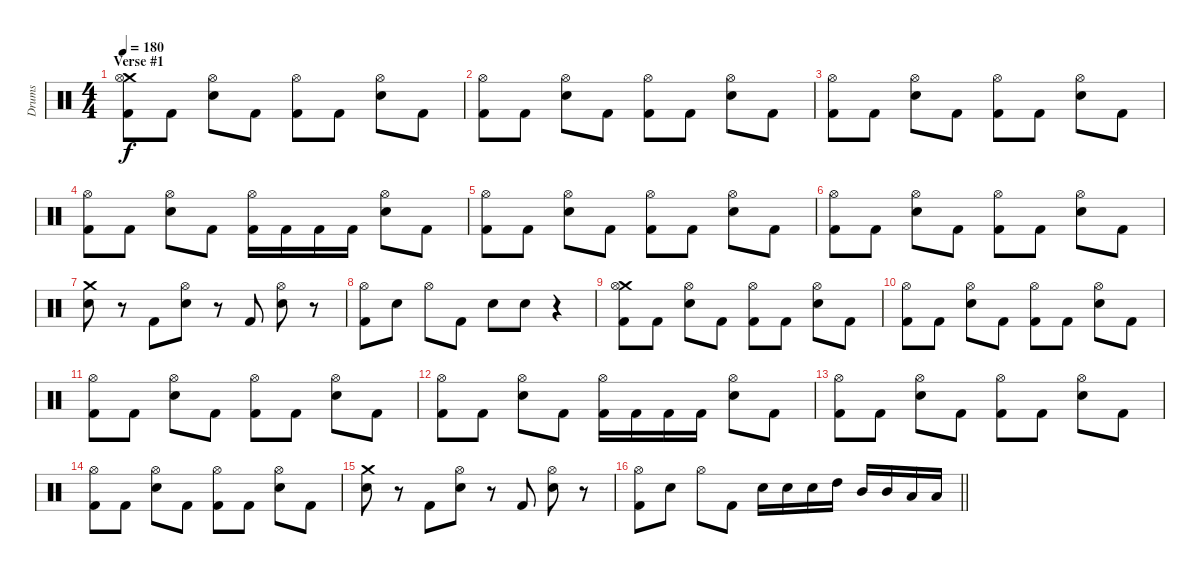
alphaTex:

\track ("Drums" "Drums") {instrument percussion}
\staff {score}
\articulation defaults
\ts (4 4)
\section ("" "Verse #1")
\tempo 180
\clef neutral
\ks c
("Crash medium (hit)" "Hi-Hat (open)" "Kick (hit) 2").8{dy f} "Kick (hit) 2".8 ("Hi-Hat (open)" "Snare (hit) 2").8 "Kick (hit) 2".8 ("Hi-Hat (open)" "Kick (hit) 2").8 "Kick (hit) 2".8 ("Hi-Hat (open)" "Snare (hit) 2").8 "Kick (hit) 2".8 |
("Hi-Hat (open)" "Kick (hit) 2").8 "Kick (hit) 2".8 ("Hi-Hat (open)" "Snare (hit) 2").8 "Kick (hit) 2".8 ("Hi-Hat (open)" "Kick (hit) 2").8 "Kick (hit) 2".8 ("Hi-Hat (open)" "Snare (hit) 2").8 "Kick (hit) 2".8 |
("Hi-Hat (open)" "Kick (hit) 2").8 "Kick (hit) 2".8 ("Hi-Hat (open)" "Snare (hit) 2").8 "Kick (hit) 2".8 ("Hi-Hat (open)" "Kick (hit) 2").8 "Kick (hit) 2".8 ("Hi-Hat (open)" "Snare (hit) 2").8 "Kick (hit) 2".8 |
("Hi-Hat (open)" "Kick (hit) 2").8 "Kick (hit) 2".8 ("Hi-Hat (open)" "Snare (hit) 2").8 "Kick (hit) 2".8 ("Hi-Hat (open)" "Kick (hit) 2").16 "Kick (hit) 2".16 "Kick (hit) 2".16 "Kick (hit) 2".16 ("Hi-Hat (open)" "Snare (hit) 2").8 "Kick (hit) 2".8 |
("Hi-Hat (open)" "Kick (hit) 2").8 "Kick (hit) 2".8 ("Hi-Hat (open)" "Snare (hit) 2").8 "Kick (hit) 2".8 ("Hi-Hat (open)" "Kick (hit) 2").8 "Kick (hit) 2".8 ("Hi-Hat (open)" "Snare (hit) 2").8 "Kick (hit) 2".8 |
("Hi-Hat (open)" "Kick (hit) 2").8 "Kick (hit) 2".8 ("Hi-Hat (open)" "Snare (hit) 2").8 "Kick (hit) 2".8 ("Hi-Hat (open)" "Kick (hit) 2").8 "Kick (hit) 2".8 ("Hi-Hat (open)" "Snare (hit) 2").8 "Kick (hit) 2".8 |
("Crash medium (hit)" "Snare (hit) 2").8 r.8 "Kick (hit) 2".8 ("Hi-Hat (open)" "Snare (hit) 2").8 r.8 "Kick (hit) 2".8 ("Hi-Hat (open)" "Snare (hit) 2").8 r.8 |
("Hi-Hat (open)" "Kick (hit) 2").8 "Snare (hit) 2".8 "Hi-Hat (open)".8 "Kick (hit) 2".8 "Electric Snare (hit)".8 "Electric Snare (hit)".8 r.4 |
("Crash medium (hit)" "Hi-Hat (open)" "Kick (hit) 2").8 "Kick (hit) 2".8 ("Hi-Hat (open)" "Snare (hit) 2").8 "Kick (hit) 2".8 ("Hi-Hat (open)" "Kick (hit) 2").8 "Kick (hit) 2".8 ("Hi-Hat (open)" "Snare (hit) 2").8 "Kick (hit) 2".8 |
("Hi-Hat (open)" "Kick (hit) 2").8 "Kick (hit) 2".8 ("Hi-Hat (open)" "Snare (hit) 2").8 "Kick (hit) 2".8 ("Hi-Hat (open)" "Kick (hit) 2").8 "Kick (hit) 2".8 ("Hi-Hat (open)" "Snare (hit) 2").8 "Kick (hit) 2".8 |
("Hi-Hat (open)" "Kick (hit) 2").8 "Kick (hit) 2".8 ("Hi-Hat (open)" "Snare (hit) 2").8 "Kick (hit) 2".8 ("Hi-Hat (open)" "Kick (hit) 2").8 "Kick (hit) 2".8 ("Hi-Hat (open)" "Snare (hit) 2").8 "Kick (hit) 2".8 |
("Hi-Hat (open)" "Kick (hit) 2").8 "Kick (hit) 2".8 ("Hi-Hat (open)" "Snare (hit) 2").8 "Kick (hit) 2".8 ("Hi-Hat (open)" "Kick (hit) 2").16 "Kick (hit) 2".16 "Kick (hit) 2".16 "Kick (hit) 2".16 ("Hi-Hat (open)" "Snare (hit) 2").8 "Kick (hit) 2".8 |
("Hi-Hat (open)" "Kick (hit) 2").8 "Kick (hit) 2".8 ("Hi-Hat (open)" "Snare (hit) 2").8 "Kick (hit) 2".8 ("Hi-Hat (open)" "Kick (hit) 2").8 "Kick (hit) 2".8 ("Hi-Hat (open)" "Snare (hit) 2").8 "Kick (hit) 2".8 |
("Hi-Hat (open)" "Kick (hit) 2").8 "Kick (hit) 2".8 ("Hi-Hat (open)" "Snare (hit) 2").8 "Kick (hit) 2".8 ("Hi-Hat (open)" "Kick (hit) 2").8 "Kick (hit) 2".8 ("Hi-Hat (open)" "Snare (hit) 2").8 "Kick (hit) 2".8 |
("Crash medium (hit)" "Snare (hit) 2").8 r.8 "Kick (hit) 2".8 ("Hi-Hat (open)" "Snare (hit) 2").8 r.8 "Kick (hit) 2".8 ("Hi-Hat (open)" "Snare (hit) 2").8 r.8 |
\barLineRight lightlight
("Hi-Hat (open)" "Kick (hit) 2").8 "Snare (hit) 2".8 "Hi-Hat (open)".8 "Kick (hit) 2".8 "Electric Snare (hit)".16 "Electric Snare (hit)".16 "Electric Snare (hit)".16 "High Tom (hit)".16 "Mid Tom (hit)".16 "Mid Tom (hit)".16 "Low Tom (hit)".16 "Low Tom (hit)".16
